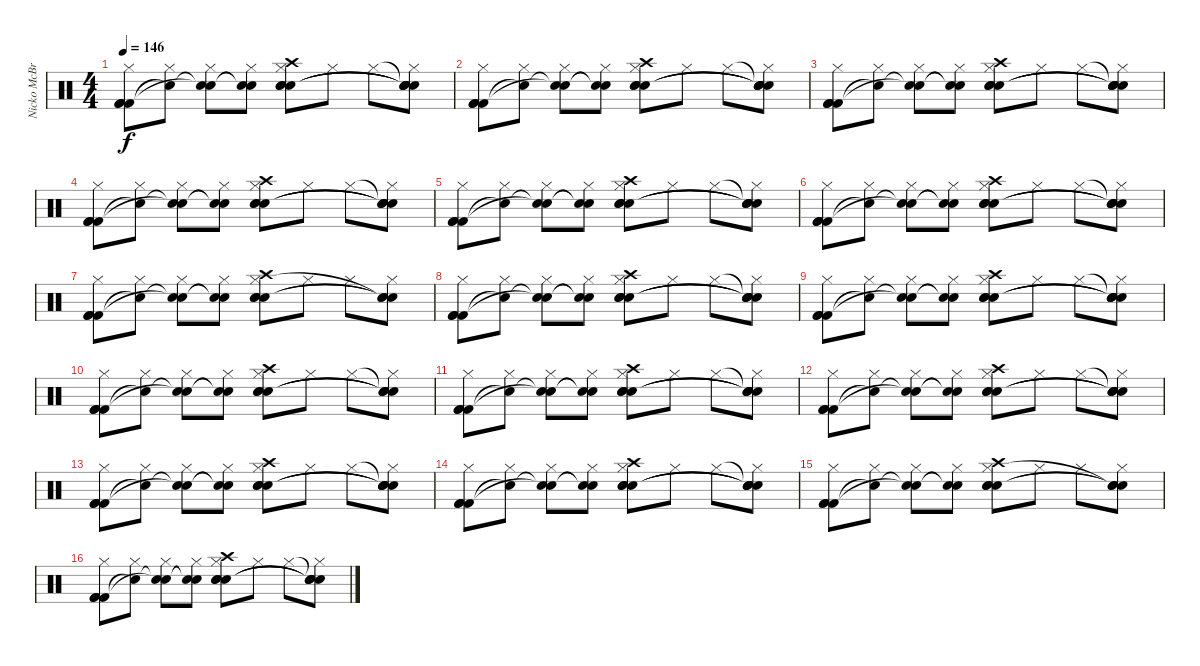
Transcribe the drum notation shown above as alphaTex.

\track ("Nicko McBrain" "Nicko McBr") {instrument percussion}
\staff {score}
\articulation defaults
\ts (4 4)
\tempo 146
\clef neutral
\ks c
("Hi-Hat (closed)" "Kick (hit) 2" "Kick (hit) 2" "Kick (hit) 2").8{dy f} ("Hi-Hat (closed)" "Snare (hit)"{t}).8 ("Hi-Hat (closed)" "Snare (hit)"{t} "Snare (hit)"{t}).8 ("Hi-Hat (closed)" "Snare (hit)"{t} "Snare (hit)"{t}).8 ("Crash high (hit)" "Hi-Hat (closed)" "Snare (hit) 2" "Snare (hit) 2" "Snare (hit) 2").8 "Hi-Hat (closed)".8 "Hi-Hat (closed)".8 ("Snare (hit)"{t} "Hi-Hat (closed)" "Snare (hit)"{t} "Snare (hit)"{t} "Snare (hit)"{t}).8 |
("Hi-Hat (closed)" "Kick (hit) 2" "Kick (hit) 2" "Kick (hit) 2").8 ("Hi-Hat (closed)" "Snare (hit)"{t}).8 ("Hi-Hat (closed)" "Snare (hit)"{t} "Snare (hit)"{t}).8 ("Hi-Hat (closed)" "Snare (hit)"{t} "Snare (hit)"{t}).8 ("Crash high (hit)" "Hi-Hat (closed)" "Snare (hit) 2" "Snare (hit) 2" "Snare (hit) 2").8 "Hi-Hat (closed)".8 "Hi-Hat (closed)".8 ("Snare (hit)"{t} "Hi-Hat (closed)" "Snare (hit)"{t} "Snare (hit)"{t} "Snare (hit)"{t}).8 |
("Hi-Hat (closed)" "Kick (hit) 2" "Kick (hit) 2" "Kick (hit) 2").8 ("Hi-Hat (closed)" "Snare (hit)"{t}).8 ("Hi-Hat (closed)" "Snare (hit)"{t} "Snare (hit)"{t}).8 ("Hi-Hat (closed)" "Snare (hit)"{t} "Snare (hit)"{t}).8 ("Crash high (hit)" "Hi-Hat (closed)" "Snare (hit) 2" "Snare (hit) 2" "Snare (hit) 2").8 "Hi-Hat (closed)".8 "Hi-Hat (closed)".8 ("Snare (hit)"{t} "Hi-Hat (closed)" "Snare (hit)"{t} "Snare (hit)"{t} "Snare (hit)"{t}).8 |
("Hi-Hat (closed)" "Kick (hit) 2" "Kick (hit) 2" "Kick (hit) 2").8 ("Hi-Hat (closed)" "Snare (hit)"{t}).8 ("Hi-Hat (closed)" "Snare (hit)"{t} "Snare (hit)"{t}).8 ("Hi-Hat (closed)" "Snare (hit)"{t} "Snare (hit)"{t}).8 ("Crash high (hit)" "Hi-Hat (closed)" "Snare (hit) 2" "Snare (hit) 2" "Snare (hit) 2").8 "Hi-Hat (closed)".8 "Hi-Hat (closed)".8 ("Snare (hit)"{t} "Hi-Hat (closed)" "Snare (hit)"{t} "Snare (hit)"{t} "Snare (hit)"{t}).8 |
("Hi-Hat (closed)" "Kick (hit) 2" "Kick (hit) 2" "Kick (hit) 2").8 ("Hi-Hat (closed)" "Snare (hit)"{t}).8 ("Hi-Hat (closed)" "Snare (hit)"{t} "Snare (hit)"{t}).8 ("Hi-Hat (closed)" "Snare (hit)"{t} "Snare (hit)"{t}).8 ("Crash high (hit)" "Hi-Hat (closed)" "Snare (hit) 2" "Snare (hit) 2" "Snare (hit) 2").8 "Hi-Hat (closed)".8 "Hi-Hat (closed)".8 ("Snare (hit)"{t} "Hi-Hat (closed)" "Snare (hit)"{t} "Snare (hit)"{t} "Snare (hit)"{t}).8 |
("Hi-Hat (closed)" "Kick (hit) 2" "Kick (hit) 2" "Kick (hit) 2").8 ("Hi-Hat (closed)" "Snare (hit)"{t}).8 ("Hi-Hat (closed)" "Snare (hit)"{t} "Snare (hit)"{t}).8 ("Hi-Hat (closed)" "Snare (hit)"{t} "Snare (hit)"{t}).8 ("Crash high (hit)" "Hi-Hat (closed)" "Snare (hit) 2" "Snare (hit) 2" "Snare (hit) 2").8 "Hi-Hat (closed)".8 "Hi-Hat (closed)".8 ("Snare (hit)"{t} "Hi-Hat (closed)" "Snare (hit)"{t} "Snare (hit)"{t} "Snare (hit)"{t}).8 |
("Hi-Hat (closed)" "Kick (hit) 2" "Kick (hit) 2" "Kick (hit) 2").8 ("Hi-Hat (closed)" "Snare (hit)"{t}).8 ("Hi-Hat (closed)" "Snare (hit)"{t} "Snare (hit)"{t}).8 ("Hi-Hat (closed)" "Snare (hit)"{t} "Snare (hit)"{t}).8 ("Crash high (hit)" "Hi-Hat (closed)" "Snare (hit) 2" "Snare (hit) 2" "Snare (hit) 2").8 "Hi-Hat (closed)".8 "Hi-Hat (closed)".8 ("Hi-Hat (closed)" "Snare (hit)"{t} "Snare (hit)"{t} "Snare (hit)"{t}).8 |
("Hi-Hat (closed)" "Kick (hit) 2" "Kick (hit) 2" "Kick (hit) 2").8 ("Hi-Hat (closed)" "Snare (hit)"{t}).8 ("Hi-Hat (closed)" "Snare (hit)"{t} "Snare (hit)"{t}).8 ("Hi-Hat (closed)" "Snare (hit)"{t} "Snare (hit)"{t}).8 ("Crash high (hit)" "Hi-Hat (closed)" "Snare (hit) 2" "Snare (hit) 2" "Snare (hit) 2").8 "Hi-Hat (closed)".8 "Hi-Hat (closed)".8 ("Snare (hit)"{t} "Hi-Hat (closed)" "Snare (hit)"{t} "Snare (hit)"{t} "Snare (hit)"{t}).8 |
("Hi-Hat (closed)" "Kick (hit) 2" "Kick (hit) 2" "Kick (hit) 2").8 ("Hi-Hat (closed)" "Snare (hit)"{t}).8 ("Hi-Hat (closed)" "Snare (hit)"{t} "Snare (hit)"{t}).8 ("Hi-Hat (closed)" "Snare (hit)"{t} "Snare (hit)"{t}).8 ("Crash high (hit)" "Hi-Hat (closed)" "Snare (hit) 2" "Snare (hit) 2" "Snare (hit) 2").8 "Hi-Hat (closed)".8 "Hi-Hat (closed)".8 ("Snare (hit)"{t} "Hi-Hat (closed)" "Snare (hit)"{t} "Snare (hit)"{t} "Snare (hit)"{t}).8 |
("Hi-Hat (closed)" "Kick (hit) 2" "Kick (hit) 2" "Kick (hit) 2").8 ("Hi-Hat (closed)" "Snare (hit)"{t}).8 ("Hi-Hat (closed)" "Snare (hit)"{t} "Snare (hit)"{t}).8 ("Hi-Hat (closed)" "Snare (hit)"{t} "Snare (hit)"{t}).8 ("Crash high (hit)" "Hi-Hat (closed)" "Snare (hit) 2" "Snare (hit) 2" "Snare (hit) 2").8 "Hi-Hat (closed)".8 "Hi-Hat (closed)".8 ("Snare (hit)"{t} "Hi-Hat (closed)" "Snare (hit)"{t} "Snare (hit)"{t} "Snare (hit)"{t}).8 |
("Hi-Hat (closed)" "Kick (hit) 2" "Kick (hit) 2" "Kick (hit) 2").8 ("Hi-Hat (closed)" "Snare (hit)"{t}).8 ("Hi-Hat (closed)" "Snare (hit)"{t} "Snare (hit)"{t}).8 ("Hi-Hat (closed)" "Snare (hit)"{t} "Snare (hit)"{t}).8 ("Crash high (hit)" "Hi-Hat (closed)" "Snare (hit) 2" "Snare (hit) 2" "Snare (hit) 2").8 "Hi-Hat (closed)".8 "Hi-Hat (closed)".8 ("Snare (hit)"{t} "Hi-Hat (closed)" "Snare (hit)"{t} "Snare (hit)"{t} "Snare (hit)"{t}).8 |
("Hi-Hat (closed)" "Kick (hit) 2" "Kick (hit) 2" "Kick (hit) 2").8 ("Hi-Hat (closed)" "Snare (hit)"{t}).8 ("Hi-Hat (closed)" "Snare (hit)"{t} "Snare (hit)"{t}).8 ("Hi-Hat (closed)" "Snare (hit)"{t} "Snare (hit)"{t}).8 ("Crash high (hit)" "Hi-Hat (closed)" "Snare (hit) 2" "Snare (hit) 2" "Snare (hit) 2").8 "Hi-Hat (closed)".8 "Hi-Hat (closed)".8 ("Snare (hit)"{t} "Hi-Hat (closed)" "Snare (hit)"{t} "Snare (hit)"{t} "Snare (hit)"{t}).8 |
("Hi-Hat (closed)" "Kick (hit) 2" "Kick (hit) 2" "Kick (hit) 2").8 ("Hi-Hat (closed)" "Snare (hit)"{t}).8 ("Hi-Hat (closed)" "Snare (hit)"{t} "Snare (hit)"{t}).8 ("Hi-Hat (closed)" "Snare (hit)"{t} "Snare (hit)"{t}).8 ("Crash high (hit)" "Hi-Hat (closed)" "Snare (hit) 2" "Snare (hit) 2" "Snare (hit) 2").8 "Hi-Hat (closed)".8 "Hi-Hat (closed)".8 ("Snare (hit)"{t} "Hi-Hat (closed)" "Snare (hit)"{t} "Snare (hit)"{t} "Snare (hit)"{t}).8 |
("Hi-Hat (closed)" "Kick (hit) 2" "Kick (hit) 2" "Kick (hit) 2").8 ("Hi-Hat (closed)" "Snare (hit)"{t}).8 ("Hi-Hat (closed)" "Snare (hit)"{t} "Snare (hit)"{t}).8 ("Hi-Hat (closed)" "Snare (hit)"{t} "Snare (hit)"{t}).8 ("Crash high (hit)" "Hi-Hat (closed)" "Snare (hit) 2" "Snare (hit) 2" "Snare (hit) 2").8 "Hi-Hat (closed)".8 "Hi-Hat (closed)".8 ("Snare (hit)"{t} "Hi-Hat (closed)" "Snare (hit)"{t} "Snare (hit)"{t} "Snare (hit)"{t}).8 |
("Hi-Hat (closed)" "Kick (hit) 2" "Kick (hit) 2" "Kick (hit) 2").8 ("Hi-Hat (closed)" "Snare (hit)"{t}).8 ("Hi-Hat (closed)" "Snare (hit)"{t} "Snare (hit)"{t}).8 ("Hi-Hat (closed)" "Snare (hit)"{t} "Snare (hit)"{t}).8 ("Crash high (hit)" "Hi-Hat (closed)" "Snare (hit) 2" "Snare (hit) 2" "Snare (hit) 2").8 "Hi-Hat (closed)".8 "Hi-Hat (closed)".8 ("Hi-Hat (closed)" "Snare (hit)"{t} "Snare (hit)"{t} "Snare (hit)"{t}).8 |
("Hi-Hat (closed)" "Kick (hit) 2" "Kick (hit) 2" "Kick (hit) 2").8 ("Hi-Hat (closed)" "Snare (hit)"{t}).8 ("Hi-Hat (closed)" "Snare (hit)"{t} "Snare (hit)"{t}).8 ("Hi-Hat (closed)" "Snare (hit)"{t} "Snare (hit)"{t}).8 ("Crash high (hit)" "Hi-Hat (closed)" "Snare (hit) 2" "Snare (hit) 2" "Snare (hit) 2").8 "Hi-Hat (closed)".8 "Hi-Hat (closed)".8 ("Snare (hit)"{t} "Hi-Hat (closed)" "Snare (hit)"{t} "Snare (hit)"{t} "Snare (hit)"{t}).8
